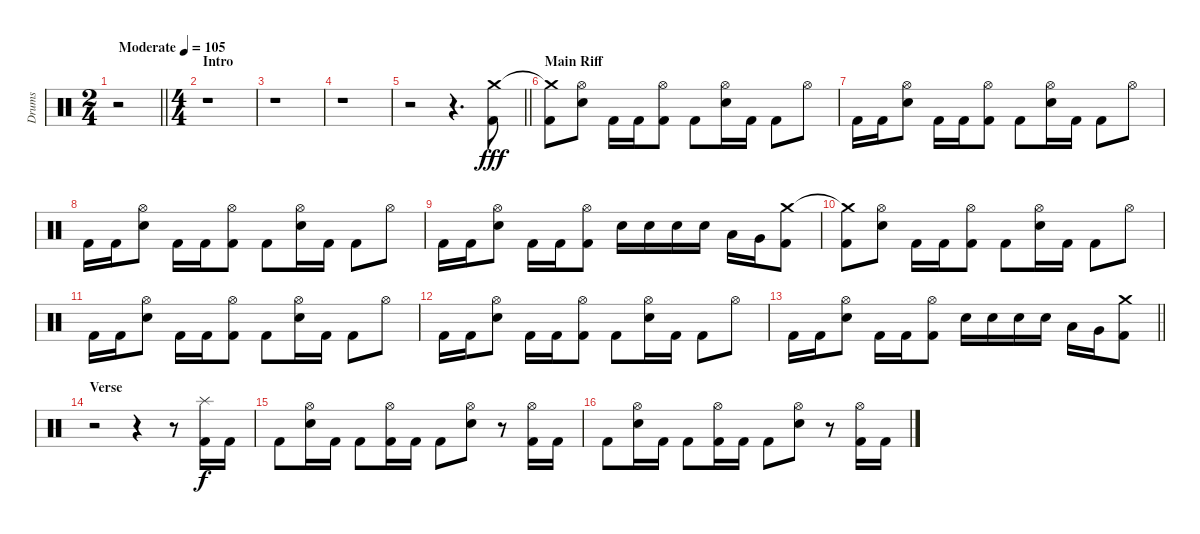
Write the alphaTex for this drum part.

\track ("Drums" "Drums") {instrument percussion}
\staff {score}
\articulation defaults
\ts (2 4)
\tempo (105 "Moderate")
\clef neutral
\barLineRight lightlight
\ks c
r.2{dy fff} |
\ts (4 4)
\section ("" "Intro")
r.1 |
r.1 |
r.1 |
\barLineRight lightlight
r.2 r.4{d} ("Crash medium (hit)" "Kick (hit) 2").8 |
\section ("" "Main Riff")
("Crash medium (hit)"{t} "Kick (hit) 2").8 ("Hi-Hat (open)" "Snare (hit) 2").8 "Kick (hit) 2".16 "Kick (hit) 2".16 ("Hi-Hat (open)" "Kick (hit) 2").8 "Kick (hit) 2".8 ("Hi-Hat (open)" "Snare (hit) 2").16 "Kick (hit) 2".16 "Kick (hit) 2".8 "Hi-Hat (open)".8 |
"Kick (hit) 2".16 "Kick (hit) 2".16 ("Hi-Hat (open)" "Snare (hit) 2").8 "Kick (hit) 2".16 "Kick (hit) 2".16 ("Hi-Hat (open)" "Kick (hit) 2").8 "Kick (hit) 2".8 ("Hi-Hat (open)" "Snare (hit) 2").16 "Kick (hit) 2".16 "Kick (hit) 2".8 "Hi-Hat (open)".8 |
"Kick (hit) 2".16 "Kick (hit) 2".16 ("Hi-Hat (open)" "Snare (hit) 2").8 "Kick (hit) 2".16 "Kick (hit) 2".16 ("Hi-Hat (open)" "Kick (hit) 2").8 "Kick (hit) 2".8 ("Hi-Hat (open)" "Snare (hit) 2").16 "Kick (hit) 2".16 "Kick (hit) 2".8 "Hi-Hat (open)".8 |
"Kick (hit) 2".16 "Kick (hit) 2".16 ("Hi-Hat (open)" "Snare (hit) 2").8 "Kick (hit) 2".16 "Kick (hit) 2".16 ("Hi-Hat (open)" "Kick (hit) 2").8 "Snare (hit) 2".16 "Snare (hit) 2".16 "Snare (hit) 2".16 "Snare (hit) 2".16 "Low Tom (hit)".16 "Very Low Tom (hit)".16 ("Crash medium (hit)" "Kick (hit) 2").8 |
("Crash medium (hit)"{t} "Kick (hit) 2").8 ("Hi-Hat (open)" "Snare (hit) 2").8 "Kick (hit) 2".16 "Kick (hit) 2".16 ("Hi-Hat (open)" "Kick (hit) 2").8 "Kick (hit) 2".8 ("Hi-Hat (open)" "Snare (hit) 2").16 "Kick (hit) 2".16 "Kick (hit) 2".8 "Hi-Hat (open)".8 |
"Kick (hit) 2".16 "Kick (hit) 2".16 ("Hi-Hat (open)" "Snare (hit) 2").8 "Kick (hit) 2".16 "Kick (hit) 2".16 ("Hi-Hat (open)" "Kick (hit) 2").8 "Kick (hit) 2".8 ("Hi-Hat (open)" "Snare (hit) 2").16 "Kick (hit) 2".16 "Kick (hit) 2".8 "Hi-Hat (open)".8 |
"Kick (hit) 2".16 "Kick (hit) 2".16 ("Hi-Hat (open)" "Snare (hit) 2").8 "Kick (hit) 2".16 "Kick (hit) 2".16 ("Hi-Hat (open)" "Kick (hit) 2").8 "Kick (hit) 2".8 ("Hi-Hat (open)" "Snare (hit) 2").16 "Kick (hit) 2".16 "Kick (hit) 2".8 "Hi-Hat (open)".8 |
\barLineRight lightlight "Kick (hit) 2".16 "Kick (hit) 2".16
("Hi-Hat (open)" "Snare (hit) 2").8 "Kick (hit) 2".16 "Kick (hit) 2".16 ("Hi-Hat (open)" "Kick (hit) 2").8 "Snare (hit) 2".16 "Snare (hit) 2".16 "Snare (hit) 2".16 "Snare (hit) 2".16 "Low Tom (hit)".16 "Very Low Tom (hit)".16 ("Crash medium (hit)" "Kick (hit) 2").8 |
\section ("" "Verse")
r.2 r.4 r.8 ("Splash (hit)" "Kick (hit) 2").16{dy f} "Kick (hit) 2".16 |
"Kick (hit) 2".8 ("Hi-Hat (open)" "Snare (hit) 2").16 "Kick (hit) 2".16 "Kick (hit) 2".8 ("Hi-Hat (open)" "Kick (hit) 2").16 "Kick (hit) 2".16 "Kick (hit) 2".8 ("Hi-Hat (open)" "Snare (hit) 2").8 r.8 ("Hi-Hat (open)" "Kick (hit) 2").16 "Kick (hit) 2".16 |
"Kick (hit) 2".8 ("Hi-Hat (open)" "Snare (hit) 2").16 "Kick (hit) 2".16 "Kick (hit) 2".8 ("Hi-Hat (open)" "Kick (hit) 2").16 "Kick (hit) 2".16 "Kick (hit) 2".8 ("Hi-Hat (open)" "Snare (hit) 2").8 r.8 ("Hi-Hat (open)" "Kick (hit) 2").16 "Kick (hit) 2".16
